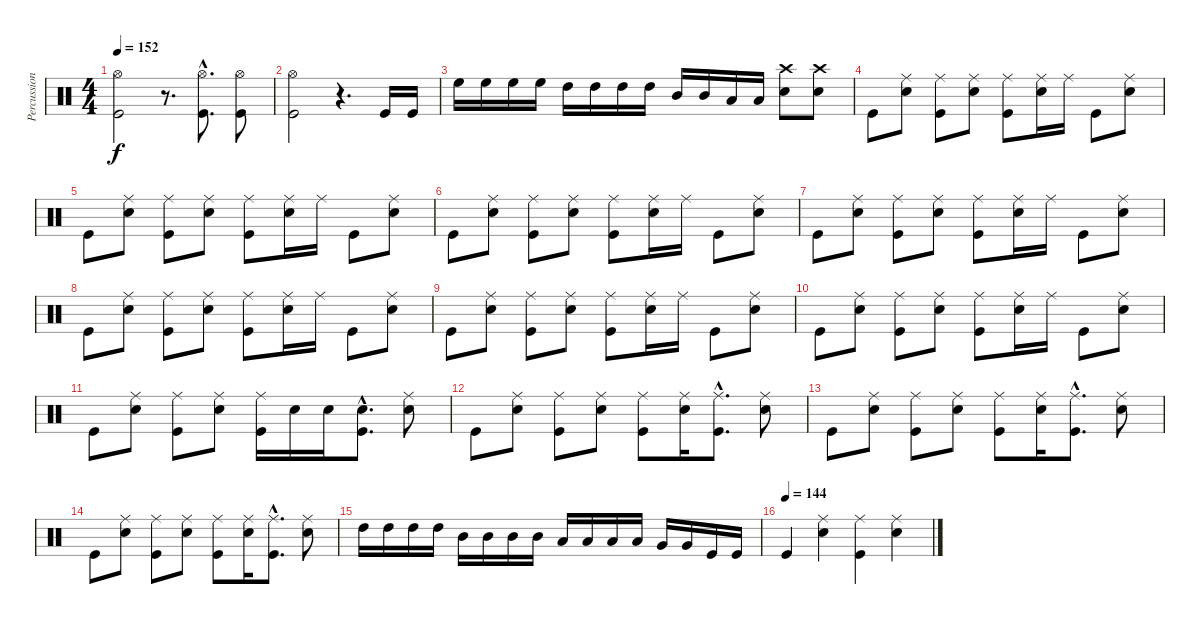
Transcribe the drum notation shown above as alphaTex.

\track ("Percussion" "Percussion") {instrument percussion}
\staff {score}
\articulation defaults
\ts (4 4)
\tempo 152
\clef neutral
\ks c
("Hi-Hat (open)" "Kick (hit)").2{dy f} r.8{d} ("Hi-Hat (open)"{hac} "Kick (hit)"{hac}).8{d} ("Hi-Hat (open)" "Kick (hit)").8 |
("Hi-Hat (open)" "Kick (hit)").2 r.4{d} "Kick (hit)".16 "Kick (hit)".16 |
"High Floor Tom (hit)".16 "High Floor Tom (hit)".16 "High Floor Tom (hit)".16 "High Floor Tom (hit)".16 "High Tom (hit)".16 "High Tom (hit)".16 "High Tom (hit)".16 "High Tom (hit)".16 "Mid Tom (hit)".16 "Mid Tom (hit)".16 "Low Tom (hit)".16 "Low Tom (hit)".16 ("Crash high (hit)" "Snare (hit) 2").8 ("Crash high (hit)" "Snare (hit) 2").8 |
"Kick (hit)".8 ("Ride (middle)" "Snare (hit) 2").8 ("Ride (middle)" "Kick (hit)").8 ("Ride (middle)" "Snare (hit) 2").8 ("Ride (middle)" "Kick (hit)").8 ("Ride (middle)" "Snare (hit) 2").16 "Ride (middle)".16 "Kick (hit)".8 ("Ride (middle)" "Snare (hit) 2").8 |
"Kick (hit)".8 ("Ride (middle)" "Snare (hit) 2").8 ("Ride (middle)" "Kick (hit)").8 ("Ride (middle)" "Snare (hit) 2").8 ("Ride (middle)" "Kick (hit)").8 ("Ride (middle)" "Snare (hit) 2").16 "Ride (middle)".16 "Kick (hit)".8 ("Ride (middle)" "Snare (hit) 2").8 |
"Kick (hit)".8 ("Ride (middle)" "Snare (hit) 2").8 ("Ride (middle)" "Kick (hit)").8 ("Ride (middle)" "Snare (hit) 2").8 ("Ride (middle)" "Kick (hit)").8 ("Ride (middle)" "Snare (hit) 2").16 "Ride (middle)".16 "Kick (hit)".8 ("Ride (middle)" "Snare (hit) 2").8 |
"Kick (hit)".8 ("Ride (middle)" "Snare (hit) 2").8 ("Ride (middle)" "Kick (hit)").8 ("Ride (middle)" "Snare (hit) 2").8 ("Ride (middle)" "Kick (hit)").8 ("Ride (middle)" "Snare (hit) 2").16 "Ride (middle)".16 "Kick (hit)".8 ("Ride (middle)" "Snare (hit) 2").8 |
"Kick (hit)".8 ("Ride (middle)" "Snare (hit) 2").8 ("Ride (middle)" "Kick (hit)").8 ("Ride (middle)" "Snare (hit) 2").8 ("Ride (middle)" "Kick (hit)").8 ("Ride (middle)" "Snare (hit) 2").16 "Ride (middle)".16 "Kick (hit)".8 ("Ride (middle)" "Snare (hit) 2").8 |
"Kick (hit)".8 ("Ride (middle)" "Snare (hit) 2").8 ("Ride (middle)" "Kick (hit)").8 ("Ride (middle)" "Snare (hit) 2").8 ("Ride (middle)" "Kick (hit)").8 ("Ride (middle)" "Snare (hit) 2").16 "Ride (middle)".16 "Kick (hit)".8 ("Ride (middle)" "Snare (hit) 2").8 |
"Kick (hit)".8 ("Ride (middle)" "Snare (hit) 2").8 ("Ride (middle)" "Kick (hit)").8 ("Ride (middle)" "Snare (hit) 2").8 ("Ride (middle)" "Kick (hit)").8 ("Ride (middle)" "Snare (hit) 2").16 "Ride (middle)".16 "Kick (hit)".8 ("Ride (middle)" "Snare (hit) 2").8 |
"Kick (hit)".8 ("Ride (middle)" "Snare (hit) 2").8 ("Ride (middle)" "Kick (hit)").8 ("Ride (middle)" "Snare (hit) 2").8 ("Ride (middle)" "Kick (hit)").16 "Snare (hit) 2".16 "Snare (hit) 2".16 ("Snare (hit) 2"{hac} "Kick (hit)"{hac}).8{d} ("Ride (middle)" "Snare (hit) 2").8 |
"Kick (hit)".8 ("Ride (middle)" "Snare (hit) 2").8 ("Ride (middle)" "Kick (hit)").8 ("Ride (middle)" "Snare (hit) 2").8 ("Ride (middle)" "Kick (hit)").8 ("Ride (middle)" "Snare (hit) 2").16 ("Ride (middle)"{hac} "Kick (hit)"{hac}).8{d} ("Ride (middle)" "Snare (hit) 2").8 |
"Kick (hit)".8 ("Ride (middle)" "Snare (hit) 2").8 ("Ride (middle)" "Kick (hit)").8 ("Ride (middle)" "Snare (hit) 2").8 ("Ride (middle)" "Kick (hit)").8 ("Ride (middle)" "Snare (hit) 2").16 ("Ride (middle)"{hac} "Kick (hit)"{hac}).8{d} ("Ride (middle)" "Snare (hit) 2").8 |
"Kick (hit)".8 ("Ride (middle)" "Snare (hit) 2").8 ("Ride (middle)" "Kick (hit)").8 ("Ride (middle)" "Snare (hit) 2").8 ("Ride (middle)" "Kick (hit)").8 ("Ride (middle)" "Snare (hit) 2").16 ("Ride (middle)"{hac} "Kick (hit)"{hac}).8{d} ("Ride (middle)" "Snare (hit) 2").8 |
"High Tom (hit)".16 "High Tom (hit)".16 "High Tom (hit)".16 "High Tom (hit)".16 "Mid Tom (hit)".16 "Mid Tom (hit)".16 "Mid Tom (hit)".16 "Mid Tom (hit)".16 "Low Tom (hit)".16 "Low Tom (hit)".16 "Low Tom (hit)".16 "Low Tom (hit)".16 "Very Low Tom (hit)".16 "Very Low Tom (hit)".16 "Kick (hit)".16 "Kick (hit)".16 |
\tempo (144)
"Kick (hit)".4 ("Ride (middle)" "Snare (hit) 2").4 ("Ride (middle)" "Kick (hit)").4 ("Ride (middle)" "Snare (hit) 2").4
